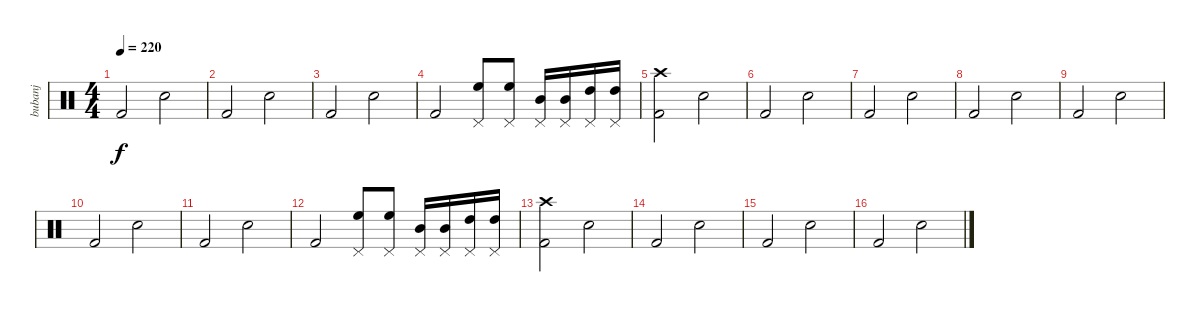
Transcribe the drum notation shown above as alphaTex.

\track ("bubanj" "bubanj") {instrument percussion}
\staff {score}
\articulation defaults
\ts (4 4)
\tempo 220
\clef neutral
\ks c "Kick (hit) 2".2{dy f} "Snare (hit) 2".2
|
"Kick (hit) 2".2 "Snare (hit) 2".2 |
"Kick (hit) 2".2 "Snare (hit) 2".2 |
"Kick (hit) 2".2 ("High Floor Tom (hit)" "Pedal Hi-Hat (hit)").8 ("High Floor Tom (hit)" "Pedal Hi-Hat (hit)").8 ("Mid Tom (hit)" "Pedal Hi-Hat (hit)").16 ("Mid Tom (hit)" "Pedal Hi-Hat (hit)").16 ("High Tom (hit)" "Pedal Hi-Hat (hit)").16 ("High Tom (hit)" "Pedal Hi-Hat (hit)").16 |
("Kick (hit) 2" "Crash high (hit)").2 "Snare (hit) 2".2 |
"Kick (hit) 2".2 "Snare (hit) 2".2 |
"Kick (hit) 2".2 "Snare (hit) 2".2 |
"Kick (hit) 2".2 "Snare (hit) 2".2 |
"Kick (hit) 2".2 "Snare (hit) 2".2 |
"Kick (hit) 2".2 "Snare (hit) 2".2 |
"Kick (hit) 2".2 "Snare (hit) 2".2 |
"Kick (hit) 2".2 ("High Floor Tom (hit)" "Pedal Hi-Hat (hit)").8 ("High Floor Tom (hit)" "Pedal Hi-Hat (hit)").8 ("Mid Tom (hit)" "Pedal Hi-Hat (hit)").16 ("Mid Tom (hit)" "Pedal Hi-Hat (hit)").16 ("High Tom (hit)" "Pedal Hi-Hat (hit)").16 ("High Tom (hit)" "Pedal Hi-Hat (hit)").16 |
("Kick (hit) 2" "Crash high (hit)").2 "Snare (hit) 2".2 |
"Kick (hit) 2".2 "Snare (hit) 2".2 |
"Kick (hit) 2".2 "Snare (hit) 2".2 |
"Kick (hit) 2".2 "Snare (hit) 2".2
